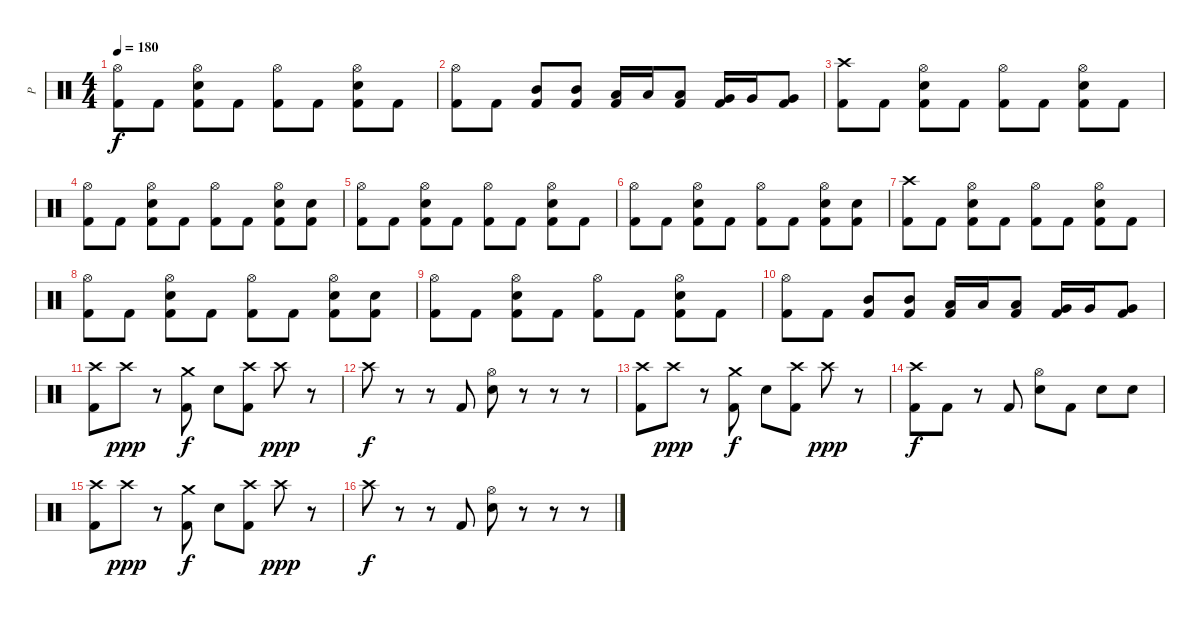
\track ("P" "P") {instrument percussion}
\staff {score}
\articulation defaults
\ts (4 4)
\tempo 180
\clef neutral
\ks c
("Hi-Hat (open)" "Kick (hit) 2").8{dy f} "Kick (hit) 2".8 ("Hi-Hat (open)" "Electric Snare (hit)" "Kick (hit) 2").8 "Kick (hit) 2".8 ("Hi-Hat (open)" "Kick (hit) 2").8 "Kick (hit) 2".8 ("Hi-Hat (open)" "Electric Snare (hit)" "Kick (hit) 2").8 "Kick (hit) 2".8 |
("Hi-Hat (open)" "Kick (hit) 2").8 "Kick (hit) 2".8 ("Mid Tom (hit)" "Kick (hit) 2").8 ("Mid Tom (hit)" "Kick (hit) 2").8 ("Low Tom (hit)" "Kick (hit) 2").16 "Low Tom (hit)".16 ("Low Tom (hit)" "Kick (hit) 2").8 ("Very Low Tom (hit)" "Kick (hit) 2").16 "Very Low Tom (hit)".16 ("Very Low Tom (hit)" "Kick (hit) 2").8 |
("Crash high (hit)" "Kick (hit) 2").8 "Kick (hit) 2".8 ("Hi-Hat (open)" "Electric Snare (hit)" "Kick (hit) 2").8 "Kick (hit) 2".8 ("Hi-Hat (open)" "Kick (hit) 2").8 "Kick (hit) 2".8 ("Hi-Hat (open)" "Electric Snare (hit)" "Kick (hit) 2").8 "Kick (hit) 2".8 |
("Hi-Hat (open)" "Kick (hit) 2").8 "Kick (hit) 2".8 ("Hi-Hat (open)" "Electric Snare (hit)" "Kick (hit) 2").8 "Kick (hit) 2".8 ("Hi-Hat (open)" "Kick (hit) 2").8 "Kick (hit) 2".8 ("Hi-Hat (open)" "Electric Snare (hit)" "Kick (hit) 2").8 ("Electric Snare (hit)" "Kick (hit) 2").8 |
("Hi-Hat (open)" "Kick (hit) 2").8 "Kick (hit) 2".8 ("Hi-Hat (open)" "Electric Snare (hit)" "Kick (hit) 2").8 "Kick (hit) 2".8 ("Hi-Hat (open)" "Kick (hit) 2").8 "Kick (hit) 2".8 ("Hi-Hat (open)" "Electric Snare (hit)" "Kick (hit) 2").8 "Kick (hit) 2".8 |
("Hi-Hat (open)" "Kick (hit) 2").8 "Kick (hit) 2".8 ("Hi-Hat (open)" "Electric Snare (hit)" "Kick (hit) 2").8 "Kick (hit) 2".8 ("Hi-Hat (open)" "Kick (hit) 2").8 "Kick (hit) 2".8 ("Hi-Hat (open)" "Electric Snare (hit)" "Kick (hit) 2").8 ("Electric Snare (hit)" "Kick (hit) 2").8 |
("Crash high (hit)" "Kick (hit) 2").8 "Kick (hit) 2".8 ("Hi-Hat (open)" "Electric Snare (hit)" "Kick (hit) 2").8 "Kick (hit) 2".8 ("Hi-Hat (open)" "Kick (hit) 2").8 "Kick (hit) 2".8 ("Hi-Hat (open)" "Electric Snare (hit)" "Kick (hit) 2").8 "Kick (hit) 2".8 |
("Hi-Hat (open)" "Kick (hit) 2").8 "Kick (hit) 2".8 ("Hi-Hat (open)" "Electric Snare (hit)" "Kick (hit) 2").8 "Kick (hit) 2".8 ("Hi-Hat (open)" "Kick (hit) 2").8 "Kick (hit) 2".8 ("Hi-Hat (open)" "Electric Snare (hit)" "Kick (hit) 2").8 ("Electric Snare (hit)" "Kick (hit) 2").8 |
("Hi-Hat (open)" "Kick (hit) 2").8 "Kick (hit) 2".8 ("Hi-Hat (open)" "Electric Snare (hit)" "Kick (hit) 2").8 "Kick (hit) 2".8 ("Hi-Hat (open)" "Kick (hit) 2").8 "Kick (hit) 2".8 ("Hi-Hat (open)" "Electric Snare (hit)" "Kick (hit) 2").8 "Kick (hit) 2".8 |
("Hi-Hat (open)" "Kick (hit) 2").8 "Kick (hit) 2".8 ("Mid Tom (hit)" "Kick (hit) 2").8 ("Mid Tom (hit)" "Kick (hit) 2").8 ("Low Tom (hit)" "Kick (hit) 2").16 "Low Tom (hit)".16 ("Low Tom (hit)" "Kick (hit) 2").8 ("Very Low Tom (hit)" "Kick (hit) 2").16 "Very Low Tom (hit)".16 ("Very Low Tom (hit)" "Kick (hit) 2").8 |
("Crash high (hit)" "Kick (hit) 2").8 "Crash high (hit)".8{dy ppp} r.8 ("Crash medium (hit)" "Kick (hit) 2").8{dy f} "Electric Snare (hit)".8 ("Crash high (hit)" "Kick (hit) 2").8 "Crash high (hit)".8{dy ppp} r.8 |
"Crash high (hit)".8{dy f} r.8 r.8 "Kick (hit) 2".8 ("Hi-Hat (open)" "Electric Snare (hit)").8 r.8 r.8 r.8 |
("Crash high (hit)" "Kick (hit) 2").8 "Crash high (hit)".8{dy ppp} r.8 ("Crash medium (hit)" "Kick (hit) 2").8{dy f} "Electric Snare (hit)".8 ("Crash high (hit)" "Kick (hit) 2").8 "Crash high (hit)".8{dy ppp} r.8 |
("Crash high (hit)" "Kick (hit) 2").8{dy f} "Kick (hit) 2".8 r.8 "Kick (hit) 2".8 ("Hi-Hat (open)" "Electric Snare (hit)").8 "Kick (hit) 2".8 "Electric Snare (hit)".8 "Electric Snare (hit)".8 |
("Crash high (hit)" "Kick (hit) 2").8 "Crash high (hit)".8{dy ppp} r.8 ("Crash medium (hit)" "Kick (hit) 2").8{dy f} "Electric Snare (hit)".8 ("Crash high (hit)" "Kick (hit) 2").8 "Crash high (hit)".8{dy ppp} r.8 |
"Crash high (hit)".8{dy f} r.8 r.8 "Kick (hit) 2".8 ("Hi-Hat (open)" "Electric Snare (hit)").8 r.8 r.8 r.8
